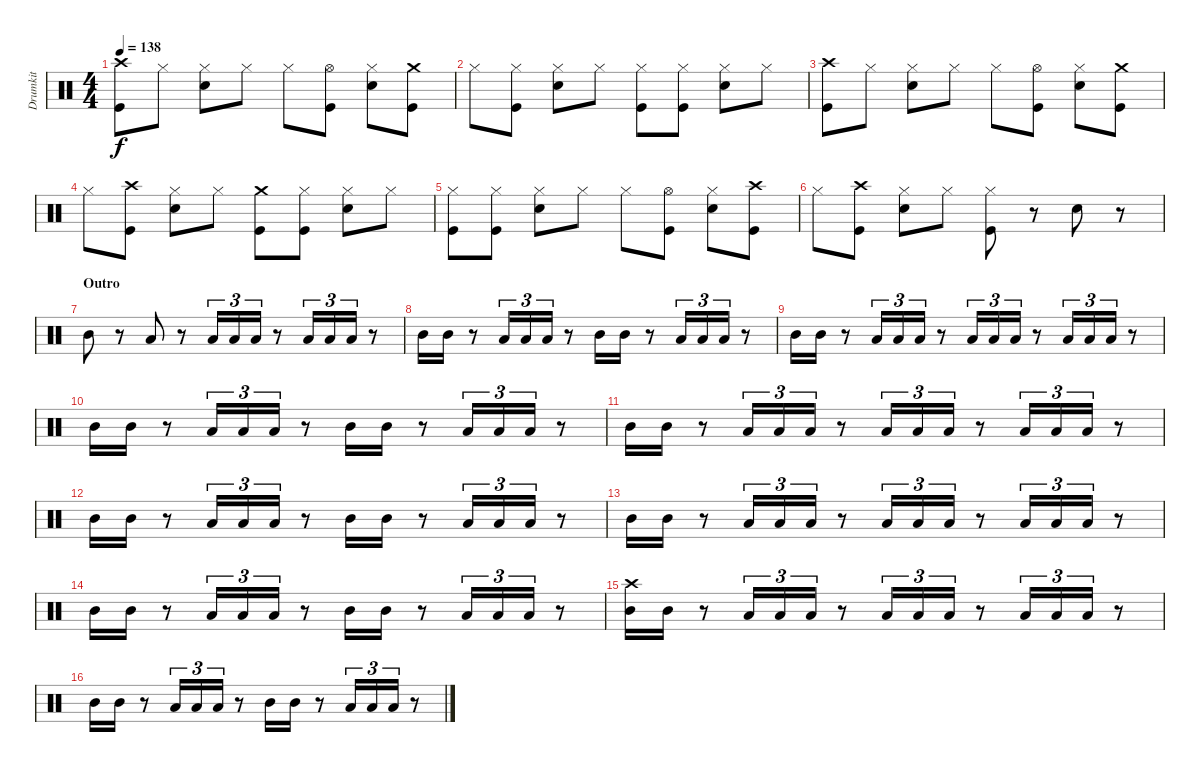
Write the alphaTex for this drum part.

\track ("Drumkit" "Drumkit") {instrument percussion}
\staff {score}
\articulation defaults
\ts (4 4)
\tempo 138
\clef neutral
\ks c
("Kick (hit)" "Crash high (hit)").8{dy f} "Hi-Hat (closed)".8 ("Snare (hit) 2" "Hi-Hat (closed)").8 "Hi-Hat (closed)".8 "Hi-Hat (closed)".8 ("Kick (hit)" "Hi-Hat (open)").8 ("Snare (hit) 2" "Hi-Hat (closed)").8 ("Kick (hit)" "Crash medium (hit)").8 |
"Hi-Hat (closed)".8 ("Hi-Hat (closed)" "Kick (hit)").8 ("Hi-Hat (closed)" "Snare (hit) 2").8 "Hi-Hat (closed)".8 ("Hi-Hat (closed)" "Kick (hit)").8 ("Hi-Hat (closed)" "Kick (hit)").8 ("Snare (hit) 2" "Hi-Hat (closed)").8 "Hi-Hat (closed)".8 |
("Kick (hit)" "Crash high (hit)").8 "Hi-Hat (closed)".8 ("Snare (hit) 2" "Hi-Hat (closed)").8 "Hi-Hat (closed)".8 "Hi-Hat (closed)".8 ("Kick (hit)" "Hi-Hat (open)").8 ("Snare (hit) 2" "Hi-Hat (closed)").8 ("Kick (hit)" "Crash medium (hit)").8 |
"Hi-Hat (closed)".8 ("Crash high (hit)" "Kick (hit)").8 ("Hi-Hat (closed)" "Snare (hit) 2").8 "Hi-Hat (closed)".8 ("Crash medium (hit)" "Kick (hit)").8 ("Hi-Hat (closed)" "Kick (hit)").8 ("Snare (hit) 2" "Hi-Hat (closed)").8 "Hi-Hat (closed)".8 |
("Hi-Hat (closed)" "Kick (hit)").8 ("Hi-Hat (closed)" "Kick (hit)").8 ("Hi-Hat (closed)" "Snare (hit) 2").8 "Hi-Hat (closed)".8 "Hi-Hat (closed)".8 ("Hi-Hat (open)" "Kick (hit)").8 ("Hi-Hat (closed)" "Snare (hit) 2").8 ("Crash high (hit)" "Kick (hit)").8 |
"Hi-Hat (closed)".8 ("Crash high (hit)" "Kick (hit)").8 ("Hi-Hat (closed)" "Snare (hit) 2").8 "Hi-Hat (closed)".8 ("Hi-Hat (closed)" "Kick (hit)").8 r.8 "Snare (hit) 2".8 r.8 |
\section ("" "Outro")
"Mid Tom (hit)".8 r.8 "Low Tom (hit)".8 r.8 "Low Tom (hit)".16{tu (3 2)} "Low Tom (hit)".16{tu (3 2)} "Low Tom (hit)".16{tu (3 2)} r.8 "Low Tom (hit)".16{tu (3 2)} "Low Tom (hit)".16{tu (3 2)} "Low Tom (hit)".16{tu (3 2)} r.8 |
"Mid Tom (hit)".16 "Mid Tom (hit)".16 r.8 "Low Tom (hit)".16{tu (3 2)} "Low Tom (hit)".16{tu (3 2)} "Low Tom (hit)".16{tu (3 2)} r.8 "Mid Tom (hit)".16 "Mid Tom (hit)".16 r.8 "Low Tom (hit)".16{tu (3 2)} "Low Tom (hit)".16{tu (3 2)} "Low Tom (hit)".16{tu (3 2)} r.8 |
"Mid Tom (hit)".16 "Mid Tom (hit)".16 r.8 "Low Tom (hit)".16{tu (3 2)} "Low Tom (hit)".16{tu (3 2)} "Low Tom (hit)".16{tu (3 2)} r.8 "Low Tom (hit)".16{tu (3 2)} "Low Tom (hit)".16{tu (3 2)} "Low Tom (hit)".16{tu (3 2)} r.8 "Low Tom (hit)".16{tu (3 2)} "Low Tom (hit)".16{tu (3 2)} "Low Tom (hit)".16{tu (3 2)} r.8 |
"Mid Tom (hit)".16 "Mid Tom (hit)".16 r.8 "Low Tom (hit)".16{tu (3 2)} "Low Tom (hit)".16{tu (3 2)} "Low Tom (hit)".16{tu (3 2)} r.8 "Mid Tom (hit)".16 "Mid Tom (hit)".16 r.8 "Low Tom (hit)".16{tu (3 2)} "Low Tom (hit)".16{tu (3 2)} "Low Tom (hit)".16{tu (3 2)} r.8 |
"Mid Tom (hit)".16 "Mid Tom (hit)".16 r.8 "Low Tom (hit)".16{tu (3 2)} "Low Tom (hit)".16{tu (3 2)} "Low Tom (hit)".16{tu (3 2)} r.8 "Low Tom (hit)".16{tu (3 2)} "Low Tom (hit)".16{tu (3 2)} "Low Tom (hit)".16{tu (3 2)} r.8 "Low Tom (hit)".16{tu (3 2)} "Low Tom (hit)".16{tu (3 2)} "Low Tom (hit)".16{tu (3 2)} r.8 |
"Mid Tom (hit)".16 "Mid Tom (hit)".16 r.8 "Low Tom (hit)".16{tu (3 2)} "Low Tom (hit)".16{tu (3 2)} "Low Tom (hit)".16{tu (3 2)} r.8 "Mid Tom (hit)".16 "Mid Tom (hit)".16 r.8 "Low Tom (hit)".16{tu (3 2)} "Low Tom (hit)".16{tu (3 2)} "Low Tom (hit)".16{tu (3 2)} r.8 |
"Mid Tom (hit)".16 "Mid Tom (hit)".16 r.8 "Low Tom (hit)".16{tu (3 2)} "Low Tom (hit)".16{tu (3 2)} "Low Tom (hit)".16{tu (3 2)} r.8 "Low Tom (hit)".16{tu (3 2)} "Low Tom (hit)".16{tu (3 2)} "Low Tom (hit)".16{tu (3 2)} r.8 "Low Tom (hit)".16{tu (3 2)} "Low Tom (hit)".16{tu (3 2)} "Low Tom (hit)".16{tu (3 2)} r.8 |
"Mid Tom (hit)".16 "Mid Tom (hit)".16 r.8 "Low Tom (hit)".16{tu (3 2)} "Low Tom (hit)".16{tu (3 2)} "Low Tom (hit)".16{tu (3 2)} r.8 "Mid Tom (hit)".16 "Mid Tom (hit)".16 r.8 "Low Tom (hit)".16{tu (3 2)} "Low Tom (hit)".16{tu (3 2)} "Low Tom (hit)".16{tu (3 2)} r.8 |
("Mid Tom (hit)" "Crash high (hit)").16 "Mid Tom (hit)".16 r.8 "Low Tom (hit)".16{tu (3 2)} "Low Tom (hit)".16{tu (3 2)} "Low Tom (hit)".16{tu (3 2)} r.8 "Low Tom (hit)".16{tu (3 2)} "Low Tom (hit)".16{tu (3 2)} "Low Tom (hit)".16{tu (3 2)} r.8 "Low Tom (hit)".16{tu (3 2)} "Low Tom (hit)".16{tu (3 2)} "Low Tom (hit)".16{tu (3 2)} r.8 |
"Mid Tom (hit)".16 "Mid Tom (hit)".16 r.8 "Low Tom (hit)".16{tu (3 2)} "Low Tom (hit)".16{tu (3 2)} "Low Tom (hit)".16{tu (3 2)} r.8 "Mid Tom (hit)".16 "Mid Tom (hit)".16 r.8 "Low Tom (hit)".16{tu (3 2)} "Low Tom (hit)".16{tu (3 2)} "Low Tom (hit)".16{tu (3 2)} r.8
